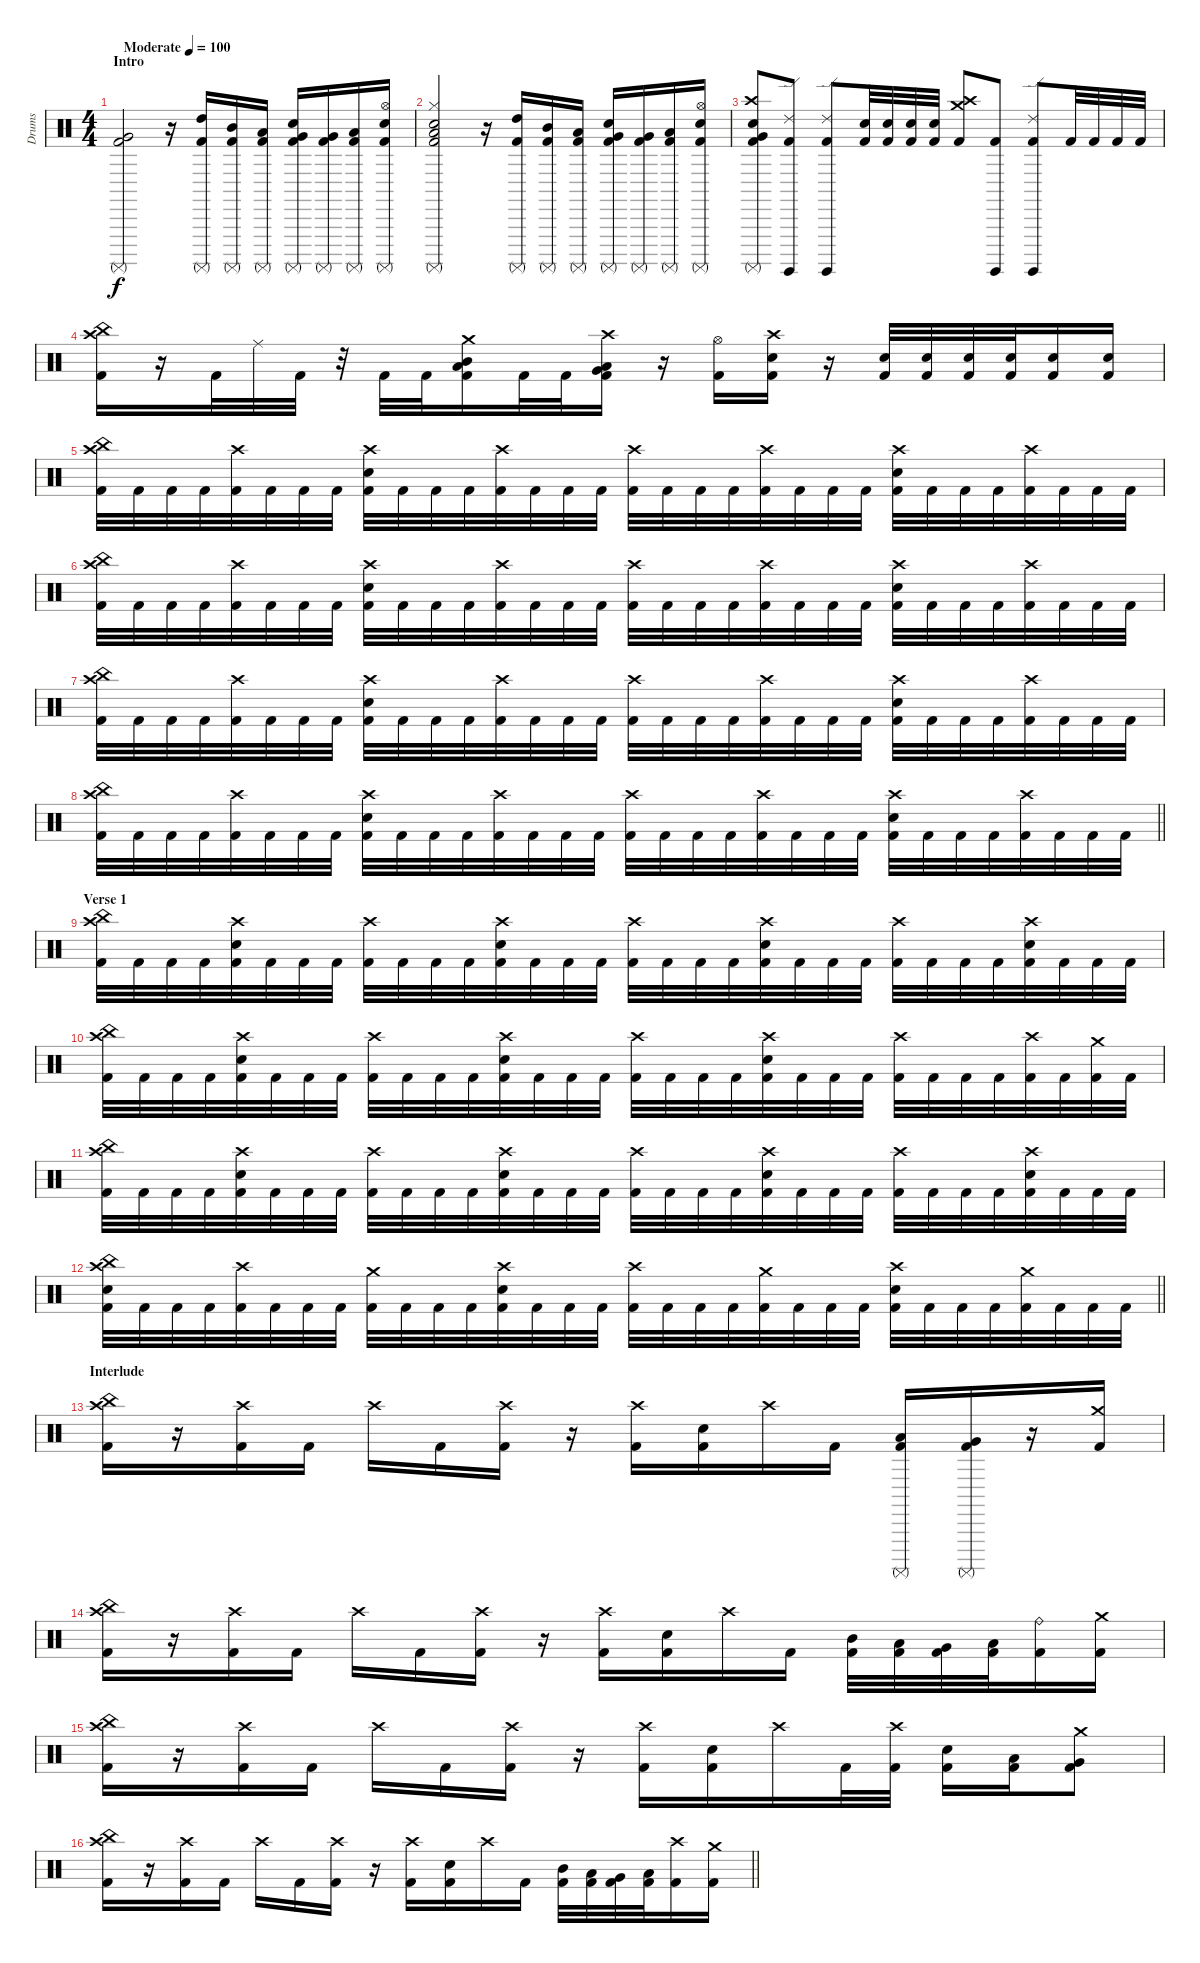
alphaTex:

\track ("Drums" "Drums") {instrument percussion}
\staff {score}
\articulation defaults
\ts (4 4)
\section ("" "Intro")
\tempo (100 "Moderate")
\clef neutral
\ks c
("Very Low Tom (hit)" "Surdo (mute)" "Kick (hit) 2").2{dy f} r.16 ("High Tom (hit)" "Surdo (mute)" "Kick (hit) 2").16 ("Mid Tom (hit)" "Surdo (mute)" "Kick (hit) 2").16 ("Low Tom (hit)" "Surdo (mute)" "Kick (hit) 2").16 ("Very Low Tom (hit)" "Electric Snare (hit)" "Surdo (mute)" "Kick (hit) 2").16 ("Very Low Tom (hit)" "Surdo (mute)" "Kick (hit) 2").16 ("Low Floor Tom (hit)" "Surdo (mute)" "Kick (hit) 2").16 ("Hi-Hat (open)" "Electric Snare (hit)" "Surdo (mute)" "Kick (hit) 2").16 |
("Hi-Hat (closed)" "Low Floor Tom (hit)" "Electric Snare (hit)" "Surdo (mute)" "Kick (hit) 2").2 r.16 ("High Tom (hit)" "Surdo (mute)" "Kick (hit) 2").16 ("Mid Tom (hit)" "Surdo (mute)" "Kick (hit) 2").16 ("Low Tom (hit)" "Surdo (mute)" "Kick (hit) 2").16 ("Very Low Tom (hit)" "Electric Snare (hit)" "Surdo (mute)" "Kick (hit) 2").16 ("Very Low Tom (hit)" "Surdo (mute)" "Kick (hit) 2").16 ("Low Floor Tom (hit)" "Surdo (mute)" "Kick (hit) 2").16 ("Hi-Hat (open)" "Electric Snare (hit)" "Surdo (mute)" "Kick (hit) 2").16 |
("Crash high (hit)" "Very Low Tom (hit)" "Electric Snare (hit)" "Surdo (mute)" "Kick (hit) 2").8 ("Ride (edge) 2" "Surdo (hit)" "Kick (hit) 2").8 ("Ride (edge) 2" "Surdo (hit)" "Kick (hit) 2").8 ("Electric Snare (hit)" "Kick (hit) 2").32 ("Electric Snare (hit)" "Kick (hit) 2").32 ("Electric Snare (hit)" "Kick (hit) 2").32 ("Electric Snare (hit)" "Kick (hit) 2").32 ("Crash medium (hit)" "Crash high (hit)" "Kick (hit) 2").8 ("Surdo (hit)" "Kick (hit) 2").8 ("Ride (edge) 2" "Surdo (hit)" "Kick (hit) 2").8 "Kick (hit) 2".32 "Kick (hit) 2".32 "Kick (hit) 2".32 "Kick (hit) 2".32 |
("China (hit)" "Crash high (hit)" "Kick (hit) 2").16 r.16 "Kick (hit) 2".32 "Ride (middle)".32 "Kick (hit) 2".32 r.32 "Kick (hit) 2".32 "Kick (hit) 2".32 ("Crash medium (hit)" "Mid Tom (hit)" "Low Tom (hit)" "Kick (hit) 2").16 "Kick (hit) 2".32 "Kick (hit) 2".32 ("Crash high (hit)" "Low Tom (hit)" "Very Low Tom (hit)" "Kick (hit) 2").16 r.16 ("Hi-Hat (open)" "Kick (hit) 2").16 ("Crash high (hit)" "Electric Snare (hit)" "Kick (hit) 2").16 r.16 ("Electric Snare (hit)" "Kick (hit) 2").32 ("Electric Snare (hit)" "Kick (hit) 2").32 ("Electric Snare (hit)" "Kick (hit) 2").32 ("Electric Snare (hit)" "Kick (hit) 2").32 ("Electric Snare (hit)" "Kick (hit) 2").16 ("Electric Snare (hit)" "Kick (hit) 2").16 |
("China (hit)" "Crash high (hit)" "Kick (hit) 2").32 "Kick (hit) 2".32 "Kick (hit) 2".32 "Kick (hit) 2".32 ("Crash high (hit)" "Kick (hit) 2").32 "Kick (hit) 2".32 "Kick (hit) 2".32 "Kick (hit) 2".32 ("Crash high (hit)" "Electric Snare (hit)" "Kick (hit) 2").32 "Kick (hit) 2".32 "Kick (hit) 2".32 "Kick (hit) 2".32 ("Crash high (hit)" "Kick (hit) 2").32 "Kick (hit) 2".32 "Kick (hit) 2".32 "Kick (hit) 2".32 ("Crash high (hit)" "Kick (hit) 2").32 "Kick (hit) 2".32 "Kick (hit) 2".32 "Kick (hit) 2".32 ("Crash high (hit)" "Kick (hit) 2").32 "Kick (hit) 2".32 "Kick (hit) 2".32 "Kick (hit) 2".32 ("Crash high (hit)" "Electric Snare (hit)" "Kick (hit) 2").32 "Kick (hit) 2".32 "Kick (hit) 2".32 "Kick (hit) 2".32 ("Crash high (hit)" "Kick (hit) 2").32 "Kick (hit) 2".32 "Kick (hit) 2".32 "Kick (hit) 2".32 |
("China (hit)" "Crash high (hit)" "Kick (hit) 2").32 "Kick (hit) 2".32 "Kick (hit) 2".32 "Kick (hit) 2".32 ("Crash high (hit)" "Kick (hit) 2").32 "Kick (hit) 2".32 "Kick (hit) 2".32 "Kick (hit) 2".32 ("Crash high (hit)" "Electric Snare (hit)" "Kick (hit) 2").32 "Kick (hit) 2".32 "Kick (hit) 2".32 "Kick (hit) 2".32 ("Crash high (hit)" "Kick (hit) 2").32 "Kick (hit) 2".32 "Kick (hit) 2".32 "Kick (hit) 2".32 ("Crash high (hit)" "Kick (hit) 2").32 "Kick (hit) 2".32 "Kick (hit) 2".32 "Kick (hit) 2".32 ("Crash high (hit)" "Kick (hit) 2").32 "Kick (hit) 2".32 "Kick (hit) 2".32 "Kick (hit) 2".32 ("Crash high (hit)" "Electric Snare (hit)" "Kick (hit) 2").32 "Kick (hit) 2".32 "Kick (hit) 2".32 "Kick (hit) 2".32 ("Crash high (hit)" "Kick (hit) 2").32 "Kick (hit) 2".32 "Kick (hit) 2".32 "Kick (hit) 2".32 |
("China (hit)" "Crash high (hit)" "Kick (hit) 2").32 "Kick (hit) 2".32 "Kick (hit) 2".32 "Kick (hit) 2".32 ("Crash high (hit)" "Kick (hit) 2").32 "Kick (hit) 2".32 "Kick (hit) 2".32 "Kick (hit) 2".32 ("Crash high (hit)" "Electric Snare (hit)" "Kick (hit) 2").32 "Kick (hit) 2".32 "Kick (hit) 2".32 "Kick (hit) 2".32 ("Crash high (hit)" "Kick (hit) 2").32 "Kick (hit) 2".32 "Kick (hit) 2".32 "Kick (hit) 2".32 ("Crash high (hit)" "Kick (hit) 2").32 "Kick (hit) 2".32 "Kick (hit) 2".32 "Kick (hit) 2".32 ("Crash high (hit)" "Kick (hit) 2").32 "Kick (hit) 2".32 "Kick (hit) 2".32 "Kick (hit) 2".32 ("Crash high (hit)" "Electric Snare (hit)" "Kick (hit) 2").32 "Kick (hit) 2".32 "Kick (hit) 2".32 "Kick (hit) 2".32 ("Crash high (hit)" "Kick (hit) 2").32 "Kick (hit) 2".32 "Kick (hit) 2".32 "Kick (hit) 2".32 |
\barLineRight lightlight
("China (hit)" "Crash high (hit)" "Kick (hit) 2").32 "Kick (hit) 2".32 "Kick (hit) 2".32 "Kick (hit) 2".32 ("Crash high (hit)" "Kick (hit) 2").32 "Kick (hit) 2".32 "Kick (hit) 2".32 "Kick (hit) 2".32 ("Crash high (hit)" "Electric Snare (hit)" "Kick (hit) 2").32 "Kick (hit) 2".32 "Kick (hit) 2".32 "Kick (hit) 2".32 ("Crash high (hit)" "Kick (hit) 2").32 "Kick (hit) 2".32 "Kick (hit) 2".32 "Kick (hit) 2".32 ("Crash high (hit)" "Kick (hit) 2").32 "Kick (hit) 2".32 "Kick (hit) 2".32 "Kick (hit) 2".32 ("Crash high (hit)" "Kick (hit) 2").32 "Kick (hit) 2".32 "Kick (hit) 2".32 "Kick (hit) 2".32 ("Crash high (hit)" "Electric Snare (hit)" "Kick (hit) 2").32 "Kick (hit) 2".32 "Kick (hit) 2".32 "Kick (hit) 2".32 ("Crash high (hit)" "Kick (hit) 2").32 "Kick (hit) 2".32 "Kick (hit) 2".32 "Kick (hit) 2".32 |
\section ("" "Verse 1")
("China (hit)" "Crash high (hit)" "Kick (hit) 2").32 "Kick (hit) 2".32 "Kick (hit) 2".32 "Kick (hit) 2".32 ("Crash high (hit)" "Electric Snare (hit)" "Kick (hit) 2").32 "Kick (hit) 2".32 "Kick (hit) 2".32 "Kick (hit) 2".32 ("Crash high (hit)" "Kick (hit) 2").32 "Kick (hit) 2".32 "Kick (hit) 2".32 "Kick (hit) 2".32 ("Crash high (hit)" "Electric Snare (hit)" "Kick (hit) 2").32 "Kick (hit) 2".32 "Kick (hit) 2".32 "Kick (hit) 2".32 ("Crash high (hit)" "Kick (hit) 2").32 "Kick (hit) 2".32 "Kick (hit) 2".32 "Kick (hit) 2".32 ("Crash high (hit)" "Electric Snare (hit)" "Kick (hit) 2").32 "Kick (hit) 2".32 "Kick (hit) 2".32 "Kick (hit) 2".32 ("Crash high (hit)" "Kick (hit) 2").32 "Kick (hit) 2".32 "Kick (hit) 2".32 "Kick (hit) 2".32 ("Crash high (hit)" "Electric Snare (hit)" "Kick (hit) 2").32 "Kick (hit) 2".32 "Kick (hit) 2".32 "Kick (hit) 2".32 |
("China (hit)" "Crash high (hit)" "Kick (hit) 2").32 "Kick (hit) 2".32 "Kick (hit) 2".32 "Kick (hit) 2".32 ("Crash high (hit)" "Electric Snare (hit)" "Kick (hit) 2").32 "Kick (hit) 2".32 "Kick (hit) 2".32 "Kick (hit) 2".32 ("Crash high (hit)" "Kick (hit) 2").32 "Kick (hit) 2".32 "Kick (hit) 2".32 "Kick (hit) 2".32 ("Crash high (hit)" "Electric Snare (hit)" "Kick (hit) 2").32 "Kick (hit) 2".32 "Kick (hit) 2".32 "Kick (hit) 2".32 ("Crash high (hit)" "Kick (hit) 2").32 "Kick (hit) 2".32 "Kick (hit) 2".32 "Kick (hit) 2".32 ("Crash high (hit)" "Electric Snare (hit)" "Kick (hit) 2").32 "Kick (hit) 2".32 "Kick (hit) 2".32 "Kick (hit) 2".32 ("Crash high (hit)" "Kick (hit) 2").32 "Kick (hit) 2".32 "Kick (hit) 2".32 "Kick (hit) 2".32 ("Crash high (hit)" "Kick (hit) 2").32 "Kick (hit) 2".32 ("Crash medium (hit)" "Kick (hit) 2").32 "Kick (hit) 2".32 |
("China (hit)" "Crash high (hit)" "Kick (hit) 2").32 "Kick (hit) 2".32 "Kick (hit) 2".32 "Kick (hit) 2".32 ("Crash high (hit)" "Electric Snare (hit)" "Kick (hit) 2").32 "Kick (hit) 2".32 "Kick (hit) 2".32 "Kick (hit) 2".32 ("Crash high (hit)" "Kick (hit) 2").32 "Kick (hit) 2".32 "Kick (hit) 2".32 "Kick (hit) 2".32 ("Crash high (hit)" "Electric Snare (hit)" "Kick (hit) 2").32 "Kick (hit) 2".32 "Kick (hit) 2".32 "Kick (hit) 2".32 ("Crash high (hit)" "Kick (hit) 2").32 "Kick (hit) 2".32 "Kick (hit) 2".32 "Kick (hit) 2".32 ("Crash high (hit)" "Electric Snare (hit)" "Kick (hit) 2").32 "Kick (hit) 2".32 "Kick (hit) 2".32 "Kick (hit) 2".32 ("Crash high (hit)" "Kick (hit) 2").32 "Kick (hit) 2".32 "Kick (hit) 2".32 "Kick (hit) 2".32 ("Crash high (hit)" "Electric Snare (hit)" "Kick (hit) 2").32 "Kick (hit) 2".32 "Kick (hit) 2".32 "Kick (hit) 2".32 |
\barLineRight lightlight
("China (hit)" "Crash high (hit)" "Electric Snare (hit)" "Kick (hit) 2").32 "Kick (hit) 2".32 "Kick (hit) 2".32 "Kick (hit) 2".32 ("Crash high (hit)" "Kick (hit) 2").32 "Kick (hit) 2".32 "Kick (hit) 2".32 "Kick (hit) 2".32 ("Crash medium (hit)" "Kick (hit) 2").32 "Kick (hit) 2".32 "Kick (hit) 2".32 "Kick (hit) 2".32 ("Crash high (hit)" "Electric Snare (hit)" "Kick (hit) 2").32 "Kick (hit) 2".32 "Kick (hit) 2".32 "Kick (hit) 2".32 ("Crash high (hit)" "Kick (hit) 2").32 "Kick (hit) 2".32 "Kick (hit) 2".32 "Kick (hit) 2".32 ("Crash medium (hit)" "Kick (hit) 2").32 "Kick (hit) 2".32 "Kick (hit) 2".32 "Kick (hit) 2".32 ("Crash high (hit)" "Electric Snare (hit)" "Kick (hit) 2").32 "Kick (hit) 2".32 "Kick (hit) 2".32 "Kick (hit) 2".32 ("Crash medium (hit)" "Kick (hit) 2").32 "Kick (hit) 2".32 "Kick (hit) 2".32 "Kick (hit) 2".32 |
\section ("" "Interlude")
("China (hit)" "Crash high (hit)" "Kick (hit) 2").16 r.16 ("Crash high (hit)" "Kick (hit) 2").16 "Kick (hit) 2".16 "Crash high (hit)".16 "Kick (hit) 2".16 ("Crash high (hit)" "Kick (hit) 2").16 r.16 ("Crash high (hit)" "Kick (hit) 2").16 ("Electric Snare (hit)" "Kick (hit) 2").16 "Crash high (hit)".16 "Kick (hit) 2".16 ("Surdo (mute)" "Low Tom (hit)" "Kick (hit) 2").16 ("Surdo (mute)" "Very Low Tom (hit)" "Kick (hit) 2").16 r.16 ("Crash medium (hit)" "Kick (hit) 2").16 |
("China (hit)" "Crash high (hit)" "Kick (hit) 2").16 r.16 ("Crash high (hit)" "Kick (hit) 2").16 "Kick (hit) 2".16 "Crash high (hit)".16 "Kick (hit) 2".16 ("Crash high (hit)" "Kick (hit) 2").16 r.16 ("Crash high (hit)" "Kick (hit) 2").16 ("Electric Snare (hit)" "Kick (hit) 2").16 "Crash high (hit)".16 "Kick (hit) 2".16 ("Mid Tom (hit)" "Kick (hit) 2").32 ("Low Tom (hit)" "Kick (hit) 2").32 ("Very Low Tom (hit)" "Kick (hit) 2").32 ("Low Floor Tom (hit)" "Kick (hit) 2").32 ("Ride (bell)" "Kick (hit) 2").16 ("Crash medium (hit)" "Kick (hit) 2").16 |
("China (hit)" "Crash high (hit)" "Kick (hit) 2").16 r.16 ("Crash high (hit)" "Kick (hit) 2").16 "Kick (hit) 2".16 "Crash high (hit)".16 "Kick (hit) 2".16 ("Crash high (hit)" "Kick (hit) 2").16 r.16 ("Crash high (hit)" "Kick (hit) 2").16 ("Electric Snare (hit)" "Kick (hit) 2").16 "Crash high (hit)".16 "Kick (hit) 2".32 ("Crash high (hit)" "Kick (hit) 2").32 ("Electric Snare (hit)" "Kick (hit) 2").16 ("Low Tom (hit)" "Kick (hit) 2").16 ("Crash medium (hit)" "Very Low Tom (hit)" "Kick (hit) 2").8 |
\barLineRight lightlight
("China (hit)" "Crash high (hit)" "Kick (hit) 2").16 r.16 ("Crash high (hit)" "Kick (hit) 2").16 "Kick (hit) 2".16 "Crash high (hit)".16 "Kick (hit) 2".16 ("Crash high (hit)" "Kick (hit) 2").16 r.16 ("Crash high (hit)" "Kick (hit) 2").16 ("Electric Snare (hit)" "Kick (hit) 2").16 "Crash high (hit)".16 "Kick (hit) 2".16 ("Mid Tom (hit)" "Kick (hit) 2").32 ("Low Tom (hit)" "Kick (hit) 2").32 ("Very Low Tom (hit)" "Kick (hit) 2").32 ("Low Floor Tom (hit)" "Kick (hit) 2").32 ("Crash high (hit)" "Kick (hit) 2").16 ("Crash medium (hit)" "Kick (hit) 2").16
